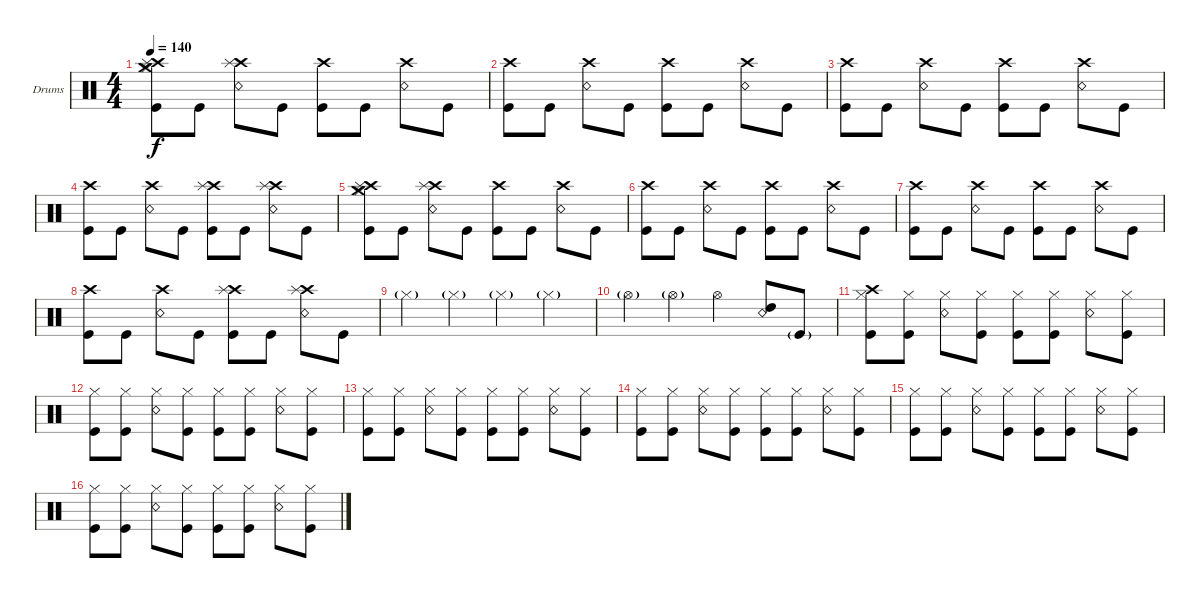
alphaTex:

\bracketExtendMode groupsimilarinstruments
\firstSystemTrackNameOrientation horizontal
\otherSystemsTrackNameOrientation horizontal
\track ("Da Kurlzz - Drums" "Drums") {instrument percussion}
\staff {score}
\articulation defaults
\ts (4 4)
\tempo 140
\clef neutral
\ks c
("Kick (hit)" "Crash high (hit)" "Crash medium (hit)" "Hi-Hat (closed)" "Splash (hit)").8{dy f} "Kick (hit)".8 ("Snare (rim shot)" "Crash high (hit)" "Splash (hit)").8 "Kick (hit)".8 ("Kick (hit)" "Crash high (hit)").8 "Kick (hit)".8 ("Snare (rim shot)" "Crash high (hit)").8 "Kick (hit)".8 |
("Kick (hit)" "Crash high (hit)").8 "Kick (hit)".8 ("Snare (rim shot)" "Crash high (hit)").8 "Kick (hit)".8 ("Kick (hit)" "Crash high (hit)").8 "Kick (hit)".8 ("Snare (rim shot)" "Crash high (hit)").8 "Kick (hit)".8 |
("Kick (hit)" "Crash high (hit)").8 "Kick (hit)".8 ("Snare (rim shot)" "Crash high (hit)").8 "Kick (hit)".8 ("Kick (hit)" "Crash high (hit)").8 "Kick (hit)".8 ("Snare (rim shot)" "Crash high (hit)").8 "Kick (hit)".8 |
("Kick (hit)" "Crash high (hit)").8 "Kick (hit)".8 ("Snare (rim shot)" "Crash high (hit)").8 "Kick (hit)".8 ("Kick (hit)" "Crash high (hit)" "Splash (hit)").8 "Kick (hit)".8 ("Snare (rim shot)" "Crash high (hit)" "Splash (hit)").8 "Kick (hit)".8 |
("Kick (hit)" "Crash high (hit)" "Crash medium (hit)" "Hi-Hat (closed)" "Splash (hit)").8 "Kick (hit)".8 ("Snare (rim shot)" "Crash high (hit)" "Splash (hit)").8 "Kick (hit)".8 ("Kick (hit)" "Crash high (hit)").8 "Kick (hit)".8 ("Snare (rim shot)" "Crash high (hit)").8 "Kick (hit)".8 |
("Kick (hit)" "Crash high (hit)").8 "Kick (hit)".8 ("Snare (rim shot)" "Crash high (hit)").8 "Kick (hit)".8 ("Kick (hit)" "Crash high (hit)").8 "Kick (hit)".8 ("Snare (rim shot)" "Crash high (hit)").8 "Kick (hit)".8 |
("Kick (hit)" "Crash high (hit)").8 "Kick (hit)".8 ("Snare (rim shot)" "Crash high (hit)").8 "Kick (hit)".8 ("Kick (hit)" "Crash high (hit)").8 "Kick (hit)".8 ("Snare (rim shot)" "Crash high (hit)").8 "Kick (hit)".8 |
("Kick (hit)" "Crash high (hit)").8 "Kick (hit)".8 ("Snare (rim shot)" "Crash high (hit)").8 "Kick (hit)".8 ("Kick (hit)" "Crash high (hit)" "Splash (hit)").8 "Kick (hit)".8 ("Snare (rim shot)" "Crash high (hit)" "Splash (hit)").8 "Kick (hit)".8 |
"Hi-Hat (closed)"{g}.4 "Hi-Hat (closed)"{g}.4 "Hi-Hat (closed)"{g}.4 "Hi-Hat (closed)"{g}.4 |
"Hi-Hat (open)"{g}.4 "Hi-Hat (open)"{g}.4 "Hi-Hat (open)".4 ("High Tom (hit)" "Snare (rim shot)").8 "Kick (hit)"{g}.8 |
("Kick (hit)" "Crash high (hit)" "Hi-Hat (closed)").8 ("Kick (hit)" "Hi-Hat (closed)").8 ("Snare (rim shot)" "Hi-Hat (closed)").8 ("Kick (hit)" "Hi-Hat (closed)").8 ("Kick (hit)" "Hi-Hat (closed)").8 ("Kick (hit)" "Hi-Hat (closed)").8 ("Snare (rim shot)" "Hi-Hat (closed)").8 ("Kick (hit)" "Hi-Hat (closed)").8 |
("Kick (hit)" "Hi-Hat (closed)").8 ("Kick (hit)" "Hi-Hat (closed)").8 ("Snare (rim shot)" "Hi-Hat (closed)").8 ("Kick (hit)" "Hi-Hat (closed)").8 ("Kick (hit)" "Hi-Hat (closed)").8 ("Kick (hit)" "Hi-Hat (closed)").8 ("Snare (rim shot)" "Hi-Hat (closed)").8 ("Kick (hit)" "Hi-Hat (closed)").8 |
("Kick (hit)" "Hi-Hat (closed)").8 ("Kick (hit)" "Hi-Hat (closed)").8 ("Snare (rim shot)" "Hi-Hat (closed)").8 ("Kick (hit)" "Hi-Hat (closed)").8 ("Kick (hit)" "Hi-Hat (closed)").8 ("Kick (hit)" "Hi-Hat (closed)").8 ("Snare (rim shot)" "Hi-Hat (closed)").8 ("Kick (hit)" "Hi-Hat (closed)").8 |
("Kick (hit)" "Hi-Hat (closed)").8 ("Kick (hit)" "Hi-Hat (closed)").8 ("Snare (rim shot)" "Hi-Hat (closed)").8 ("Kick (hit)" "Hi-Hat (closed)").8 ("Kick (hit)" "Hi-Hat (closed)").8 ("Kick (hit)" "Hi-Hat (closed)").8 ("Snare (rim shot)" "Hi-Hat (closed)").8 ("Kick (hit)" "Hi-Hat (closed)").8 |
("Kick (hit)" "Hi-Hat (closed)").8 ("Kick (hit)" "Hi-Hat (closed)").8 ("Snare (rim shot)" "Hi-Hat (closed)").8 ("Kick (hit)" "Hi-Hat (closed)").8 ("Kick (hit)" "Hi-Hat (closed)").8 ("Kick (hit)" "Hi-Hat (closed)").8 ("Snare (rim shot)" "Hi-Hat (closed)").8 ("Kick (hit)" "Hi-Hat (closed)").8 |
("Kick (hit)" "Hi-Hat (closed)").8 ("Kick (hit)" "Hi-Hat (closed)").8 ("Snare (rim shot)" "Hi-Hat (closed)").8 ("Kick (hit)" "Hi-Hat (closed)").8 ("Kick (hit)" "Hi-Hat (closed)").8 ("Kick (hit)" "Hi-Hat (closed)").8 ("Snare (rim shot)" "Hi-Hat (closed)").8 ("Kick (hit)" "Hi-Hat (closed)").8
